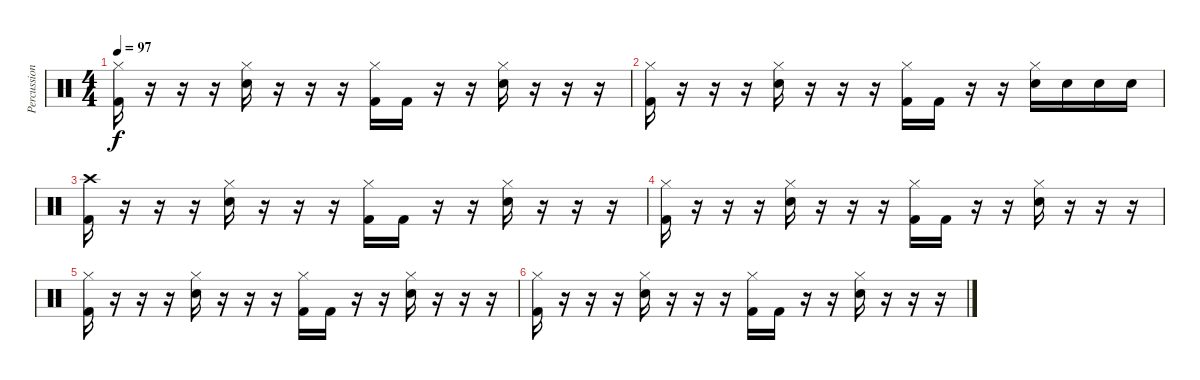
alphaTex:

\track ("Percussion" "Percussion") {instrument percussion}
\staff {score}
\articulation defaults
\ts (4 4)
\tempo 97
\clef neutral
\ks c
("Hi-Hat (closed)" "Kick (hit) 2").16{dy f volume 11} r.16 r.16 r.16 ("Hi-Hat (closed)" "Snare (hit) 2").16 r.16 r.16 r.16 ("Hi-Hat (closed)" "Kick (hit) 2").16 "Kick (hit) 2".16 r.16 r.16 ("Hi-Hat (closed)" "Snare (hit) 2").16 r.16 r.16 r.16 |
("Hi-Hat (closed)" "Kick (hit) 2").16{volume 9} r.16 r.16 r.16 ("Hi-Hat (closed)" "Snare (hit) 2").16 r.16 r.16 r.16 ("Hi-Hat (closed)" "Kick (hit) 2").16 "Kick (hit) 2".16 r.16 r.16 ("Hi-Hat (closed)" "Snare (hit) 2").16 "Snare (hit) 2".16 "Snare (hit) 2".16 "Snare (hit) 2".16 |
("Crash high (hit)" "Kick (hit) 2").16{volume 5} r.16 r.16 r.16 ("Hi-Hat (closed)" "Snare (hit) 2").16 r.16 r.16 r.16 ("Hi-Hat (closed)" "Kick (hit) 2").16 "Kick (hit) 2".16 r.16 r.16 ("Hi-Hat (closed)" "Snare (hit) 2").16 r.16 r.16 r.16 |
("Hi-Hat (closed)" "Kick (hit) 2").16{volume 2} r.16 r.16 r.16 ("Hi-Hat (closed)" "Snare (hit) 2").16 r.16 r.16 r.16 ("Hi-Hat (closed)" "Kick (hit) 2").16 "Kick (hit) 2".16 r.16 r.16 ("Hi-Hat (closed)" "Snare (hit) 2").16 r.16 r.16 r.16 |
("Hi-Hat (closed)" "Kick (hit) 2").16{volume 0} r.16 r.16 r.16 ("Hi-Hat (closed)" "Snare (hit) 2").16 r.16 r.16 r.16 ("Hi-Hat (closed)" "Kick (hit) 2").16 "Kick (hit) 2".16 r.16 r.16 ("Hi-Hat (closed)" "Snare (hit) 2").16 r.16 r.16 r.16 |
("Hi-Hat (closed)" "Kick (hit) 2").16 r.16 r.16 r.16 ("Hi-Hat (closed)" "Snare (hit) 2").16 r.16 r.16 r.16 ("Hi-Hat (closed)" "Kick (hit) 2").16 "Kick (hit) 2".16 r.16 r.16 ("Hi-Hat (closed)" "Snare (hit) 2").16 r.16 r.16 r.16
